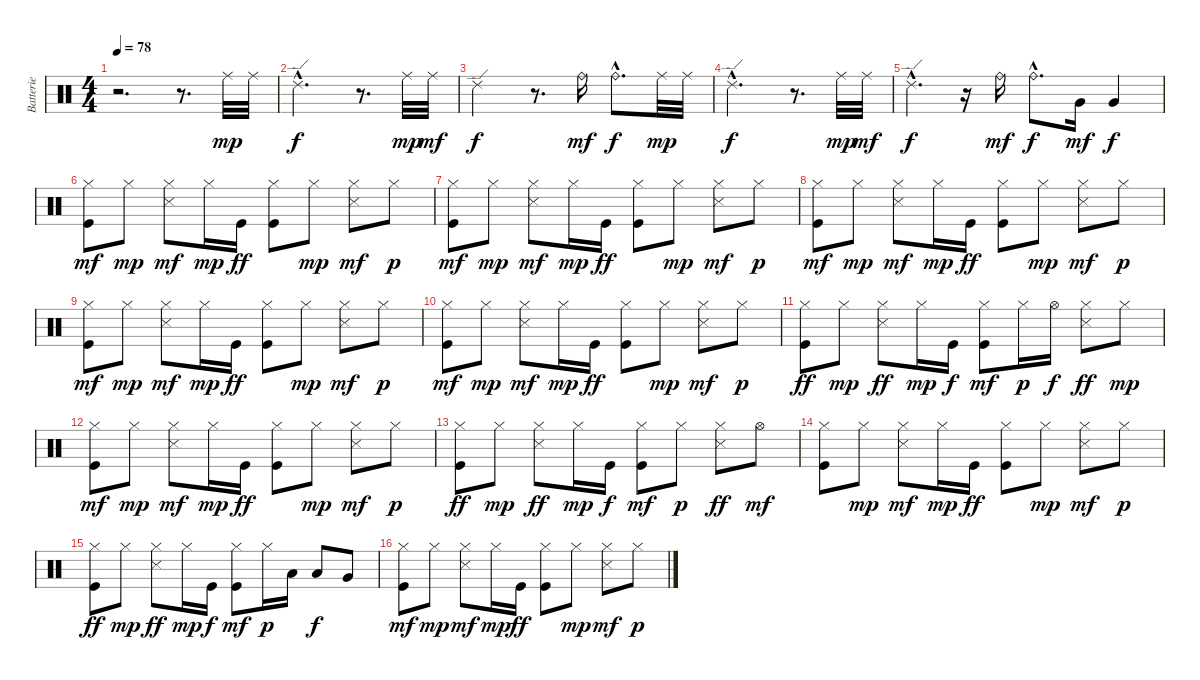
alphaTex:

\track ("Batterie" "Batterie") {instrument percussion}
\staff {score}
\articulation defaults
\ts (4 4)
\tempo 78
\clef neutral
\ks c
r.2{d dy mp} r.8{d} "Ride (middle)".32 "Ride (middle)".32 |
"Ride (edge) 2"{hac}.2{d dy f} r.8{d} "Ride (middle)".32{dy mp} "Ride (middle)".32{dy mf} |
"Ride (edge) 2".2{dy f} r.8{d} "Ride (bell)".16{dy mf} "Ride (bell)"{hac}.8{d dy f} "Ride (middle)".32{dy mp} "Ride (middle)".32 |
"Ride (edge) 2"{hac}.2{d dy f} r.8{d} "Ride (middle)".32{dy mp} "Ride (middle)".32{dy mf} |
"Ride (edge) 2"{hac}.4{d dy f} r.16 "Ride (bell)".16{dy mf} "Ride (bell)"{hac}.8{d dy f} "Very Low Tom (hit)".16{dy mf} "Very Low Tom (hit)".4{dy f} |
("Kick (hit)" "Hi-Hat (closed)").8{dy mf} "Hi-Hat (closed)".8{dy mp} ("Snare (side stick) 3" "Hi-Hat (closed)").8{dy mf} "Hi-Hat (closed)".16{dy mp} "Kick (hit)".16{dy ff} ("Kick (hit)" "Hi-Hat (closed)").8 "Hi-Hat (closed)".8{dy mp} ("Snare (side stick) 3" "Hi-Hat (closed)").8{dy mf} "Hi-Hat (closed)".8{dy p} |
("Kick (hit)" "Hi-Hat (closed)").8{dy mf} "Hi-Hat (closed)".8{dy mp} ("Snare (side stick) 3" "Hi-Hat (closed)").8{dy mf} "Hi-Hat (closed)".16{dy mp} "Kick (hit)".16{dy ff} ("Kick (hit)" "Hi-Hat (closed)").8 "Hi-Hat (closed)".8{dy mp} ("Snare (side stick) 3" "Hi-Hat (closed)").8{dy mf} "Hi-Hat (closed)".8{dy p} |
("Kick (hit)" "Hi-Hat (closed)").8{dy mf} "Hi-Hat (closed)".8{dy mp} ("Snare (side stick) 3" "Hi-Hat (closed)").8{dy mf} "Hi-Hat (closed)".16{dy mp} "Kick (hit)".16{dy ff} ("Kick (hit)" "Hi-Hat (closed)").8 "Hi-Hat (closed)".8{dy mp} ("Snare (side stick) 3" "Hi-Hat (closed)").8{dy mf} "Hi-Hat (closed)".8{dy p} |
("Kick (hit)" "Hi-Hat (closed)").8{dy mf} "Hi-Hat (closed)".8{dy mp} ("Snare (side stick) 3" "Hi-Hat (closed)").8{dy mf} "Hi-Hat (closed)".16{dy mp} "Kick (hit)".16{dy ff} ("Kick (hit)" "Hi-Hat (closed)").8 "Hi-Hat (closed)".8{dy mp} ("Snare (side stick) 3" "Hi-Hat (closed)").8{dy mf} "Hi-Hat (closed)".8{dy p} |
("Kick (hit)" "Hi-Hat (closed)").8{dy mf} "Hi-Hat (closed)".8{dy mp} ("Snare (side stick) 3" "Hi-Hat (closed)").8{dy mf} "Hi-Hat (closed)".16{dy mp} "Kick (hit)".16{dy ff} ("Kick (hit)" "Hi-Hat (closed)").8 "Hi-Hat (closed)".8{dy mp} ("Snare (side stick) 3" "Hi-Hat (closed)").8{dy mf} "Hi-Hat (closed)".8{dy p} |
("Kick (hit)" "Hi-Hat (closed)").8{dy ff} "Hi-Hat (closed)".8{dy mp} ("Snare (side stick) 3" "Hi-Hat (closed)").8{dy ff} "Hi-Hat (closed)".16{dy mp} "Kick (hit)".16{dy f} ("Kick (hit)" "Hi-Hat (closed)").8{dy mf} "Hi-Hat (closed)".16{dy p} "Hi-Hat (open)".16{dy f} ("Snare (side stick) 3" "Hi-Hat (closed)").8{dy ff} "Hi-Hat (closed)".8{dy mp} |
("Kick (hit)" "Hi-Hat (closed)").8{dy mf} "Hi-Hat (closed)".8{dy mp} ("Snare (side stick) 3" "Hi-Hat (closed)").8{dy mf} "Hi-Hat (closed)".16{dy mp} "Kick (hit)".16{dy ff} ("Kick (hit)" "Hi-Hat (closed)").8 "Hi-Hat (closed)".8{dy mp} ("Snare (side stick) 3" "Hi-Hat (closed)").8{dy mf} "Hi-Hat (closed)".8{dy p} |
("Kick (hit)" "Hi-Hat (closed)").8{dy ff} "Hi-Hat (closed)".8{dy mp} ("Snare (side stick) 3" "Hi-Hat (closed)").8{dy ff} "Hi-Hat (closed)".16{dy mp} "Kick (hit)".16{dy f} ("Kick (hit)" "Hi-Hat (closed)").8{dy mf} "Hi-Hat (closed)".8{dy p} ("Snare (side stick) 3" "Hi-Hat (closed)").8{dy ff} "Hi-Hat (open)".8{dy mf} |
("Kick (hit)" "Hi-Hat (closed)").8 "Hi-Hat (closed)".8{dy mp} ("Snare (side stick) 3" "Hi-Hat (closed)").8{dy mf} "Hi-Hat (closed)".16{dy mp} "Kick (hit)".16{dy ff} ("Kick (hit)" "Hi-Hat (closed)").8 "Hi-Hat (closed)".8{dy mp} ("Snare (side stick) 3" "Hi-Hat (closed)").8{dy mf} "Hi-Hat (closed)".8{dy p} |
("Kick (hit)" "Hi-Hat (closed)").8{dy ff} "Hi-Hat (closed)".8{dy mp} ("Snare (side stick) 3" "Hi-Hat (closed)").8{dy ff} "Hi-Hat (closed)".16{dy mp} "Kick (hit)".16{dy f} ("Kick (hit)" "Hi-Hat (closed)").8{dy mf} "Hi-Hat (closed)".16{dy p} "Low Tom (hit)".16 "Low Tom (hit)".8{dy f} "Very Low Tom (hit)".8 |
("Kick (hit)" "Hi-Hat (closed)").8{dy mf} "Hi-Hat (closed)".8{dy mp} ("Snare (side stick) 3" "Hi-Hat (closed)").8{dy mf} "Hi-Hat (closed)".16{dy mp} "Kick (hit)".16{dy ff} ("Kick (hit)" "Hi-Hat (closed)").8 "Hi-Hat (closed)".8{dy mp} ("Snare (side stick) 3" "Hi-Hat (closed)").8{dy mf} "Hi-Hat (closed)".8{dy p}
